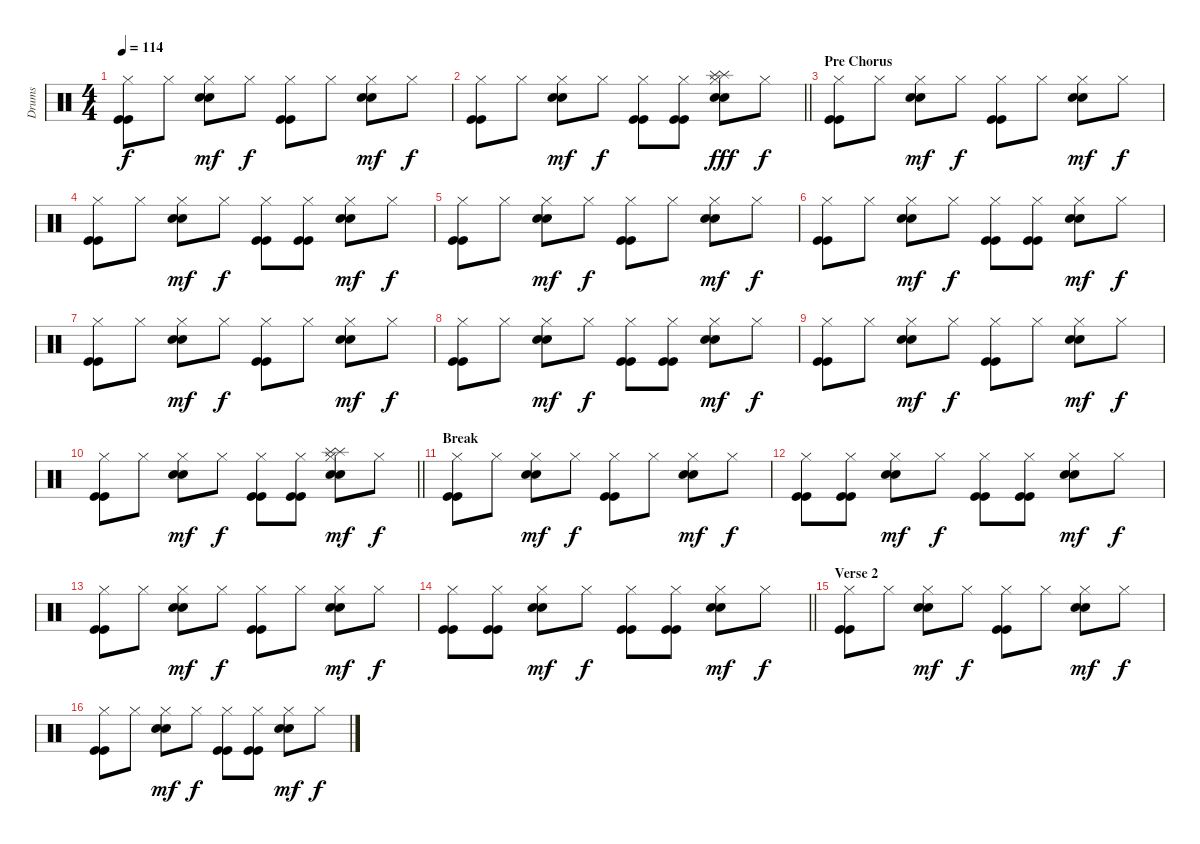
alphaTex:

\track ("Drums" "Drums") {instrument percussion}
\staff {score}
\articulation defaults
\ts (4 4)
\tempo 114
\clef neutral
\ks c
("Kick (hit)" "Kick (hit)" "Hi-Hat (closed)").8{dy f} "Hi-Hat (closed)".8 ("Snare (hit) 2" "Snare (hit) 2" "Hi-Hat (closed)").8{dy mf} "Hi-Hat (closed)".8{dy f} ("Kick (hit)" "Kick (hit)" "Hi-Hat (closed)").8 "Hi-Hat (closed)".8 ("Snare (hit) 2" "Snare (hit) 2" "Hi-Hat (closed)").8{dy mf} "Hi-Hat (closed)".8{dy f} |
\barLineRight lightlight
("Kick (hit)" "Kick (hit)" "Hi-Hat (closed)").8 "Hi-Hat (closed)".8 ("Snare (hit) 2" "Snare (hit) 2" "Hi-Hat (closed)").8{dy mf} "Hi-Hat (closed)".8{dy f} ("Kick (hit)" "Kick (hit)" "Hi-Hat (closed)").8 ("Kick (hit)" "Kick (hit)" "Hi-Hat (closed)").8 ("Snare (hit) 2" "Snare (hit) 2" "Hi-Hat (closed)" "Splash (hit)" "Splash (hit)").8{dy fff} "Hi-Hat (closed)".8{dy f} |
\section ("" "Pre Chorus")
("Kick (hit)" "Kick (hit)" "Hi-Hat (closed)").8 "Hi-Hat (closed)".8 ("Snare (hit) 2" "Snare (hit) 2" "Hi-Hat (closed)").8{dy mf} "Hi-Hat (closed)".8{dy f} ("Kick (hit)" "Kick (hit)" "Hi-Hat (closed)").8 "Hi-Hat (closed)".8 ("Snare (hit) 2" "Snare (hit) 2" "Hi-Hat (closed)").8{dy mf} "Hi-Hat (closed)".8{dy f} |
("Kick (hit)" "Kick (hit)" "Hi-Hat (closed)").8 "Hi-Hat (closed)".8 ("Snare (hit) 2" "Snare (hit) 2" "Hi-Hat (closed)").8{dy mf} "Hi-Hat (closed)".8{dy f} ("Kick (hit)" "Kick (hit)" "Hi-Hat (closed)").8 ("Kick (hit)" "Kick (hit)" "Hi-Hat (closed)").8 ("Snare (hit) 2" "Snare (hit) 2" "Hi-Hat (closed)").8{dy mf} "Hi-Hat (closed)".8{dy f} |
("Kick (hit)" "Kick (hit)" "Hi-Hat (closed)").8 "Hi-Hat (closed)".8 ("Snare (hit) 2" "Snare (hit) 2" "Hi-Hat (closed)").8{dy mf} "Hi-Hat (closed)".8{dy f} ("Kick (hit)" "Kick (hit)" "Hi-Hat (closed)").8 "Hi-Hat (closed)".8 ("Snare (hit) 2" "Snare (hit) 2" "Hi-Hat (closed)").8{dy mf} "Hi-Hat (closed)".8{dy f} |
("Kick (hit)" "Kick (hit)" "Hi-Hat (closed)").8 "Hi-Hat (closed)".8 ("Snare (hit) 2" "Snare (hit) 2" "Hi-Hat (closed)").8{dy mf} "Hi-Hat (closed)".8{dy f} ("Kick (hit)" "Kick (hit)" "Hi-Hat (closed)").8 ("Kick (hit)" "Kick (hit)" "Hi-Hat (closed)").8 ("Snare (hit) 2" "Snare (hit) 2" "Hi-Hat (closed)").8{dy mf} "Hi-Hat (closed)".8{dy f} |
("Kick (hit)" "Kick (hit)" "Hi-Hat (closed)").8 "Hi-Hat (closed)".8 ("Snare (hit) 2" "Snare (hit) 2" "Hi-Hat (closed)").8{dy mf} "Hi-Hat (closed)".8{dy f} ("Kick (hit)" "Kick (hit)" "Hi-Hat (closed)").8 "Hi-Hat (closed)".8 ("Snare (hit) 2" "Snare (hit) 2" "Hi-Hat (closed)").8{dy mf} "Hi-Hat (closed)".8{dy f} |
("Kick (hit)" "Kick (hit)" "Hi-Hat (closed)").8 "Hi-Hat (closed)".8 ("Snare (hit) 2" "Snare (hit) 2" "Hi-Hat (closed)").8{dy mf} "Hi-Hat (closed)".8{dy f} ("Kick (hit)" "Kick (hit)" "Hi-Hat (closed)").8 ("Kick (hit)" "Kick (hit)" "Hi-Hat (closed)").8 ("Snare (hit) 2" "Snare (hit) 2" "Hi-Hat (closed)").8{dy mf} "Hi-Hat (closed)".8{dy f} |
("Kick (hit)" "Kick (hit)" "Hi-Hat (closed)").8 "Hi-Hat (closed)".8 ("Snare (hit) 2" "Snare (hit) 2" "Hi-Hat (closed)").8{dy mf} "Hi-Hat (closed)".8{dy f} ("Kick (hit)" "Kick (hit)" "Hi-Hat (closed)").8 "Hi-Hat (closed)".8 ("Snare (hit) 2" "Snare (hit) 2" "Hi-Hat (closed)").8{dy mf} "Hi-Hat (closed)".8{dy f} |
\barLineRight lightlight
("Kick (hit)" "Kick (hit)" "Hi-Hat (closed)").8 "Hi-Hat (closed)".8 ("Snare (hit) 2" "Snare (hit) 2" "Hi-Hat (closed)").8{dy mf} "Hi-Hat (closed)".8{dy f} ("Kick (hit)" "Kick (hit)" "Hi-Hat (closed)").8 ("Kick (hit)" "Kick (hit)" "Hi-Hat (closed)").8 ("Snare (hit) 2" "Snare (hit) 2" "Hi-Hat (closed)" "Splash (hit)" "Splash (hit)").8{dy mf} "Hi-Hat (closed)".8{dy f} |
\section ("" "Break")
("Kick (hit)" "Kick (hit)" "Hi-Hat (closed)").8 "Hi-Hat (closed)".8 ("Snare (hit) 2" "Snare (hit) 2" "Hi-Hat (closed)").8{dy mf} "Hi-Hat (closed)".8{dy f} ("Kick (hit)" "Kick (hit)" "Hi-Hat (closed)").8 "Hi-Hat (closed)".8 ("Snare (hit) 2" "Snare (hit) 2" "Hi-Hat (closed)").8{dy mf} "Hi-Hat (closed)".8{dy f} |
("Kick (hit)" "Kick (hit)" "Hi-Hat (closed)").8 ("Kick (hit)" "Kick (hit)" "Hi-Hat (closed)").8 ("Snare (hit) 2" "Snare (hit) 2" "Hi-Hat (closed)").8{dy mf} "Hi-Hat (closed)".8{dy f} ("Kick (hit)" "Kick (hit)" "Hi-Hat (closed)").8 ("Kick (hit)" "Kick (hit)" "Hi-Hat (closed)").8 ("Snare (hit) 2" "Snare (hit) 2" "Hi-Hat (closed)").8{dy mf} "Hi-Hat (closed)".8{dy f} |
("Kick (hit)" "Kick (hit)" "Hi-Hat (closed)").8 "Hi-Hat (closed)".8 ("Snare (hit) 2" "Snare (hit) 2" "Hi-Hat (closed)").8{dy mf} "Hi-Hat (closed)".8{dy f} ("Kick (hit)" "Kick (hit)" "Hi-Hat (closed)").8 "Hi-Hat (closed)".8 ("Snare (hit) 2" "Snare (hit) 2" "Hi-Hat (closed)").8{dy mf} "Hi-Hat (closed)".8{dy f} |
\barLineRight lightlight
("Kick (hit)" "Kick (hit)" "Hi-Hat (closed)").8 ("Kick (hit)" "Kick (hit)" "Hi-Hat (closed)").8 ("Snare (hit) 2" "Snare (hit) 2" "Hi-Hat (closed)").8{dy mf} "Hi-Hat (closed)".8{dy f} ("Kick (hit)" "Kick (hit)" "Hi-Hat (closed)").8 ("Kick (hit)" "Kick (hit)" "Hi-Hat (closed)").8 ("Snare (hit) 2" "Snare (hit) 2" "Hi-Hat (closed)").8{dy mf} "Hi-Hat (closed)".8{dy f} |
\section ("" "Verse 2")
("Kick (hit)" "Kick (hit)" "Hi-Hat (closed)").8 "Hi-Hat (closed)".8 ("Snare (hit) 2" "Snare (hit) 2" "Hi-Hat (closed)").8{dy mf} "Hi-Hat (closed)".8{dy f} ("Kick (hit)" "Kick (hit)" "Hi-Hat (closed)").8 "Hi-Hat (closed)".8 ("Snare (hit) 2" "Snare (hit) 2" "Hi-Hat (closed)").8{dy mf} "Hi-Hat (closed)".8{dy f} |
("Kick (hit)" "Kick (hit)" "Hi-Hat (closed)").8 "Hi-Hat (closed)".8 ("Snare (hit) 2" "Snare (hit) 2" "Hi-Hat (closed)").8{dy mf} "Hi-Hat (closed)".8{dy f} ("Kick (hit)" "Kick (hit)" "Hi-Hat (closed)").8 ("Kick (hit)" "Kick (hit)" "Hi-Hat (closed)").8 ("Snare (hit) 2" "Snare (hit) 2" "Hi-Hat (closed)").8{dy mf} "Hi-Hat (closed)".8{dy f}
